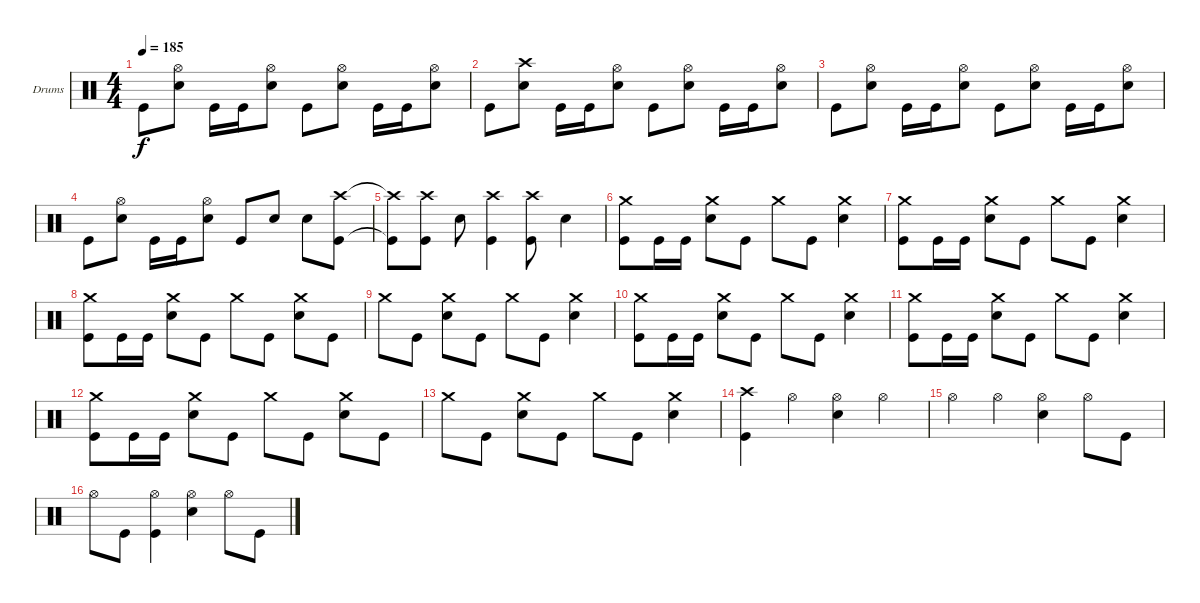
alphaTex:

\bracketExtendMode groupsimilarinstruments
\firstSystemTrackNameOrientation horizontal
\otherSystemsTrackNameOrientation horizontal
\track ("Drumkit" "Drums") {instrument percussion}
\staff {score}
\articulation defaults
\ts (4 4)
\tempo 185
\clef neutral
\ks c "Kick (hit)".8{dy f}
("Hi-Hat (open)" "Snare (hit) 2").8 "Kick (hit)".16 "Kick (hit)".16 ("Hi-Hat (open)" "Snare (hit) 2").8 "Kick (hit)".8 ("Hi-Hat (open)" "Snare (hit) 2").8 "Kick (hit)".16 "Kick (hit)".16 ("Hi-Hat (open)" "Snare (hit) 2").8 |
"Kick (hit)".8 ("Crash high (hit)" "Snare (hit) 2").8 "Kick (hit)".16 "Kick (hit)".16 ("Hi-Hat (open)" "Snare (hit) 2").8 "Kick (hit)".8 ("Hi-Hat (open)" "Snare (hit) 2").8 "Kick (hit)".16 "Kick (hit)".16 ("Hi-Hat (open)" "Snare (hit) 2").8 |
"Kick (hit)".8 ("Hi-Hat (open)" "Snare (hit) 2").8 "Kick (hit)".16 "Kick (hit)".16 ("Hi-Hat (open)" "Snare (hit) 2").8 "Kick (hit)".8 ("Hi-Hat (open)" "Snare (hit) 2").8 "Kick (hit)".16 "Kick (hit)".16 ("Hi-Hat (open)" "Snare (hit) 2").8 |
"Kick (hit)".8 ("Hi-Hat (open)" "Snare (hit) 2").8 "Kick (hit)".16 "Kick (hit)".16 ("Hi-Hat (open)" "Snare (hit) 2").8 "Kick (hit)".8 "Snare (hit) 2".8 "Snare (hit) 2".8 ("Crash high (hit)" "Kick (hit)").8 |
("Crash high (hit)"{t} "Kick (hit)"{t}).8 ("Crash high (hit)" "Kick (hit)").8 "Snare (hit) 2".8 ("Crash high (hit)" "Kick (hit)").4 ("Crash high (hit)" "Kick (hit)").8 "Snare (hit) 2".4 |
("Crash medium (hit)" "Kick (hit)").8 "Kick (hit)".16 "Kick (hit)".16 ("Crash medium (hit)" "Snare (hit) 2").8 "Kick (hit)".8 "Crash medium (hit)".8 "Kick (hit)".8 ("Crash medium (hit)" "Snare (hit) 2").4 |
("Crash medium (hit)" "Kick (hit)").8 "Kick (hit)".16 "Kick (hit)".16 ("Crash medium (hit)" "Snare (hit) 2").8 "Kick (hit)".8 "Crash medium (hit)".8 "Kick (hit)".8 ("Crash medium (hit)" "Snare (hit) 2").4 |
("Crash medium (hit)" "Kick (hit)").8 "Kick (hit)".16 "Kick (hit)".16 ("Crash medium (hit)" "Snare (hit) 2").8 "Kick (hit)".8 "Crash medium (hit)".8 "Kick (hit)".8 ("Crash medium (hit)" "Snare (hit) 2").8 "Kick (hit)".8 |
"Crash medium (hit)".8 "Kick (hit)".8 ("Crash medium (hit)" "Snare (hit) 2").8 "Kick (hit)".8 "Crash medium (hit)".8 "Kick (hit)".8 ("Crash medium (hit)" "Snare (hit) 2").4 |
("Crash medium (hit)" "Kick (hit)").8 "Kick (hit)".16 "Kick (hit)".16 ("Crash medium (hit)" "Snare (hit) 2").8 "Kick (hit)".8 "Crash medium (hit)".8 "Kick (hit)".8 ("Crash medium (hit)" "Snare (hit) 2").4 |
("Crash medium (hit)" "Kick (hit)").8 "Kick (hit)".16 "Kick (hit)".16 ("Crash medium (hit)" "Snare (hit) 2").8 "Kick (hit)".8 "Crash medium (hit)".8 "Kick (hit)".8 ("Crash medium (hit)" "Snare (hit) 2").4 |
("Crash medium (hit)" "Kick (hit)").8 "Kick (hit)".16 "Kick (hit)".16 ("Crash medium (hit)" "Snare (hit) 2").8 "Kick (hit)".8 "Crash medium (hit)".8 "Kick (hit)".8 ("Crash medium (hit)" "Snare (hit) 2").8 "Kick (hit)".8 |
"Crash medium (hit)".8 "Kick (hit)".8 ("Crash medium (hit)" "Snare (hit) 2").8 "Kick (hit)".8 "Crash medium (hit)".8 "Kick (hit)".8 ("Crash medium (hit)" "Snare (hit) 2").4 |
("Crash high (hit)" "Kick (hit)").4 "Hi-Hat (open)".4 ("Hi-Hat (open)" "Snare (hit) 2").4 "Hi-Hat (open)".4 |
"Hi-Hat (open)".4 "Hi-Hat (open)".4 ("Hi-Hat (open)" "Snare (hit) 2").4 "Hi-Hat (open)".8 "Kick (hit)".8 |
"Hi-Hat (open)".8 "Kick (hit)".8 ("Hi-Hat (open)" "Kick (hit)").4 ("Hi-Hat (open)" "Snare (hit) 2").4 "Hi-Hat (open)".8 "Kick (hit)".8
